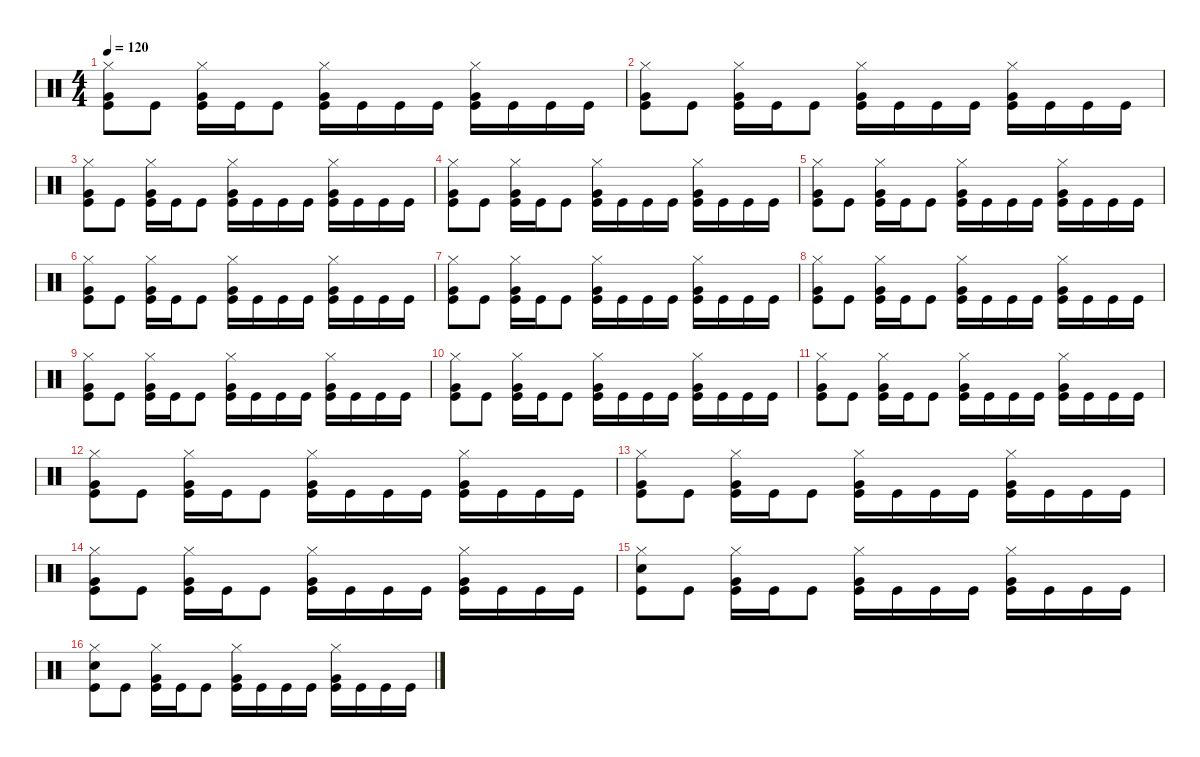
\defaultSystemsLayout 4
\hideDynamics
\bracketExtendMode nobrackets
\singleTrackTrackNamePolicy hidden
\multiTrackTrackNamePolicy hidden
\otherSystemsTrackNameOrientation horizontal
\track ("Ulrich" "drm.") {instrument percussion}
\staff {score}
\articulation defaults
\ts (4 4)
\tempo 120
\clef neutral
\ks c
("Hi-Hat (closed)" "Kick (hit)" "Very Low Tom (hit)").8{dy f beam Down} "Kick (hit)".8{dy fff beam Down} ("Hi-Hat (closed)" "Kick (hit)" "Very Low Tom (hit)").16{dy f beam Down} "Kick (hit)".16{dy fff beam Down} "Kick (hit)".8{beam Down} ("Hi-Hat (closed)" "Kick (hit)" "Very Low Tom (hit)").16{dy f beam Down} "Kick (hit)".16{dy fff beam Down} "Kick (hit)".16{beam Down} "Kick (hit)".16{beam Down} ("Hi-Hat (closed)" "Kick (hit)" "Very Low Tom (hit)").16{dy f beam Down} "Kick (hit)".16{dy fff beam Down} "Kick (hit)".16{beam Down} "Kick (hit)".16{beam Down} |
("Hi-Hat (closed)" "Kick (hit)" "Very Low Tom (hit)").8{dy f beam Down} "Kick (hit)".8{dy fff beam Down} ("Hi-Hat (closed)" "Kick (hit)" "Very Low Tom (hit)").16{dy f beam Down} "Kick (hit)".16{dy fff beam Down} "Kick (hit)".8{beam Down} ("Hi-Hat (closed)" "Kick (hit)" "Very Low Tom (hit)").16{dy f beam Down} "Kick (hit)".16{dy fff beam Down} "Kick (hit)".16{beam Down} "Kick (hit)".16{beam Down} ("Hi-Hat (closed)" "Kick (hit)" "Very Low Tom (hit)").16{dy f beam Down} "Kick (hit)".16{dy fff beam Down} "Kick (hit)".16{beam Down} "Kick (hit)".16{beam Down} |
("Hi-Hat (closed)" "Kick (hit)" "Very Low Tom (hit)").8{dy f beam Down} "Kick (hit)".8{dy fff beam Down} ("Hi-Hat (closed)" "Kick (hit)" "Very Low Tom (hit)").16{dy f beam Down} "Kick (hit)".16{dy fff beam Down} "Kick (hit)".8{beam Down} ("Hi-Hat (closed)" "Kick (hit)" "Very Low Tom (hit)").16{dy f beam Down} "Kick (hit)".16{dy fff beam Down} "Kick (hit)".16{beam Down} "Kick (hit)".16{beam Down} ("Hi-Hat (closed)" "Kick (hit)" "Very Low Tom (hit)").16{dy f beam Down} "Kick (hit)".16{dy fff beam Down} "Kick (hit)".16{beam Down} "Kick (hit)".16{beam Down} |
("Hi-Hat (closed)" "Kick (hit)" "Very Low Tom (hit)").8{dy f beam Down} "Kick (hit)".8{dy fff beam Down} ("Hi-Hat (closed)" "Kick (hit)" "Very Low Tom (hit)").16{dy f beam Down} "Kick (hit)".16{dy fff beam Down} "Kick (hit)".8{beam Down} ("Hi-Hat (closed)" "Kick (hit)" "Very Low Tom (hit)").16{dy f beam Down} "Kick (hit)".16{dy fff beam Down} "Kick (hit)".16{beam Down} "Kick (hit)".16{beam Down} ("Hi-Hat (closed)" "Kick (hit)" "Very Low Tom (hit)").16{dy f beam Down} "Kick (hit)".16{dy fff beam Down} "Kick (hit)".16{beam Down} "Kick (hit)".16{beam Down} |
("Hi-Hat (closed)" "Kick (hit)" "Very Low Tom (hit)").8{dy f beam Down} "Kick (hit)".8{dy fff beam Down} ("Hi-Hat (closed)" "Kick (hit)" "Very Low Tom (hit)").16{dy f beam Down} "Kick (hit)".16{dy fff beam Down} "Kick (hit)".8{beam Down} ("Hi-Hat (closed)" "Kick (hit)" "Very Low Tom (hit)").16{dy f beam Down} "Kick (hit)".16{dy fff beam Down} "Kick (hit)".16{beam Down} "Kick (hit)".16{beam Down} ("Hi-Hat (closed)" "Kick (hit)" "Very Low Tom (hit)").16{dy f beam Down} "Kick (hit)".16{dy fff beam Down} "Kick (hit)".16{beam Down} "Kick (hit)".16{beam Down} |
("Hi-Hat (closed)" "Kick (hit)" "Very Low Tom (hit)").8{dy f beam Down} "Kick (hit)".8{dy fff beam Down} ("Hi-Hat (closed)" "Kick (hit)" "Very Low Tom (hit)").16{dy f beam Down} "Kick (hit)".16{dy fff beam Down} "Kick (hit)".8{beam Down} ("Hi-Hat (closed)" "Kick (hit)" "Very Low Tom (hit)").16{dy f beam Down} "Kick (hit)".16{dy fff beam Down} "Kick (hit)".16{beam Down} "Kick (hit)".16{beam Down} ("Hi-Hat (closed)" "Kick (hit)" "Very Low Tom (hit)").16{dy f beam Down} "Kick (hit)".16{dy fff beam Down} "Kick (hit)".16{beam Down} "Kick (hit)".16{beam Down} |
("Hi-Hat (closed)" "Kick (hit)" "Very Low Tom (hit)").8{dy f beam Down} "Kick (hit)".8{dy fff beam Down} ("Hi-Hat (closed)" "Kick (hit)" "Very Low Tom (hit)").16{dy f beam Down} "Kick (hit)".16{dy fff beam Down} "Kick (hit)".8{beam Down} ("Hi-Hat (closed)" "Kick (hit)" "Very Low Tom (hit)").16{dy f beam Down} "Kick (hit)".16{dy fff beam Down} "Kick (hit)".16{beam Down} "Kick (hit)".16{beam Down} ("Hi-Hat (closed)" "Kick (hit)" "Very Low Tom (hit)").16{dy f beam Down} "Kick (hit)".16{dy fff beam Down} "Kick (hit)".16{beam Down} "Kick (hit)".16{beam Down} |
("Hi-Hat (closed)" "Kick (hit)" "Very Low Tom (hit)").8{dy f beam Down} "Kick (hit)".8{dy fff beam Down} ("Hi-Hat (closed)" "Kick (hit)" "Very Low Tom (hit)").16{dy f beam Down} "Kick (hit)".16{dy fff beam Down} "Kick (hit)".8{beam Down} ("Hi-Hat (closed)" "Kick (hit)" "Very Low Tom (hit)").16{dy f beam Down} "Kick (hit)".16{dy fff beam Down} "Kick (hit)".16{beam Down} "Kick (hit)".16{beam Down} ("Hi-Hat (closed)" "Kick (hit)" "Very Low Tom (hit)").16{dy f beam Down} "Kick (hit)".16{dy fff beam Down} "Kick (hit)".16{beam Down} "Kick (hit)".16{beam Down} |
("Hi-Hat (closed)" "Kick (hit)" "Very Low Tom (hit)").8{dy f beam Down} "Kick (hit)".8{dy fff beam Down} ("Hi-Hat (closed)" "Kick (hit)" "Very Low Tom (hit)").16{dy f beam Down} "Kick (hit)".16{dy fff beam Down} "Kick (hit)".8{beam Down} ("Hi-Hat (closed)" "Kick (hit)" "Very Low Tom (hit)").16{dy f beam Down} "Kick (hit)".16{dy fff beam Down} "Kick (hit)".16{beam Down} "Kick (hit)".16{beam Down} ("Hi-Hat (closed)" "Kick (hit)" "Very Low Tom (hit)").16{dy f beam Down} "Kick (hit)".16{dy fff beam Down} "Kick (hit)".16{beam Down} "Kick (hit)".16{beam Down} |
("Hi-Hat (closed)" "Kick (hit)" "Very Low Tom (hit)").8{dy f beam Down} "Kick (hit)".8{dy fff beam Down} ("Hi-Hat (closed)" "Kick (hit)" "Very Low Tom (hit)").16{dy f beam Down} "Kick (hit)".16{dy fff beam Down} "Kick (hit)".8{beam Down} ("Hi-Hat (closed)" "Kick (hit)" "Very Low Tom (hit)").16{dy f beam Down} "Kick (hit)".16{dy fff beam Down} "Kick (hit)".16{beam Down} "Kick (hit)".16{beam Down} ("Hi-Hat (closed)" "Kick (hit)" "Very Low Tom (hit)").16{dy f beam Down} "Kick (hit)".16{dy fff beam Down} "Kick (hit)".16{beam Down} "Kick (hit)".16{beam Down} |
("Hi-Hat (closed)" "Kick (hit)" "Very Low Tom (hit)").8{dy f beam Down} "Kick (hit)".8{dy fff beam Down} ("Hi-Hat (closed)" "Kick (hit)" "Very Low Tom (hit)").16{dy f beam Down} "Kick (hit)".16{dy fff beam Down} "Kick (hit)".8{beam Down} ("Hi-Hat (closed)" "Kick (hit)" "Very Low Tom (hit)").16{dy f beam Down} "Kick (hit)".16{dy fff beam Down} "Kick (hit)".16{beam Down} "Kick (hit)".16{beam Down} ("Hi-Hat (closed)" "Kick (hit)" "Very Low Tom (hit)").16{dy f beam Down} "Kick (hit)".16{dy fff beam Down} "Kick (hit)".16{beam Down} "Kick (hit)".16{beam Down} |
("Hi-Hat (closed)" "Kick (hit)" "Very Low Tom (hit)").8{dy f beam Down} "Kick (hit)".8{dy fff beam Down} ("Hi-Hat (closed)" "Kick (hit)" "Very Low Tom (hit)").16{dy f beam Down} "Kick (hit)".16{dy fff beam Down} "Kick (hit)".8{beam Down} ("Hi-Hat (closed)" "Kick (hit)" "Very Low Tom (hit)").16{dy f beam Down} "Kick (hit)".16{dy fff beam Down} "Kick (hit)".16{beam Down} "Kick (hit)".16{beam Down} ("Hi-Hat (closed)" "Kick (hit)" "Very Low Tom (hit)").16{dy f beam Down} "Kick (hit)".16{dy fff beam Down} "Kick (hit)".16{beam Down} "Kick (hit)".16{beam Down} |
("Hi-Hat (closed)" "Kick (hit)" "Very Low Tom (hit)").8{dy f beam Down} "Kick (hit)".8{dy fff beam Down} ("Hi-Hat (closed)" "Kick (hit)" "Very Low Tom (hit)").16{dy f beam Down} "Kick (hit)".16{dy fff beam Down} "Kick (hit)".8{beam Down} ("Hi-Hat (closed)" "Kick (hit)" "Very Low Tom (hit)").16{dy f beam Down} "Kick (hit)".16{dy fff beam Down} "Kick (hit)".16{beam Down} "Kick (hit)".16{beam Down} ("Hi-Hat (closed)" "Kick (hit)" "Very Low Tom (hit)").16{dy f beam Down} "Kick (hit)".16{dy fff beam Down} "Kick (hit)".16{beam Down} "Kick (hit)".16{beam Down} |
("Hi-Hat (closed)" "Kick (hit)" "Very Low Tom (hit)").8{dy f beam Down} "Kick (hit)".8{dy fff beam Down} ("Hi-Hat (closed)" "Kick (hit)" "Very Low Tom (hit)").16{dy f beam Down} "Kick (hit)".16{dy fff beam Down} "Kick (hit)".8{beam Down} ("Hi-Hat (closed)" "Kick (hit)" "Very Low Tom (hit)").16{dy f beam Down} "Kick (hit)".16{dy fff beam Down} "Kick (hit)".16{beam Down} "Kick (hit)".16{beam Down} ("Hi-Hat (closed)" "Kick (hit)" "Very Low Tom (hit)").16{dy f beam Down} "Kick (hit)".16{dy fff beam Down} "Kick (hit)".16{beam Down} "Kick (hit)".16{beam Down} |
("Hi-Hat (closed)" "Kick (hit)" "Snare (hit) 2").8{dy f beam Down} "Kick (hit)".8{dy fff beam Down} ("Hi-Hat (closed)" "Kick (hit)" "Very Low Tom (hit)").16{dy f beam Down} "Kick (hit)".16{dy fff beam Down} "Kick (hit)".8{beam Down} ("Hi-Hat (closed)" "Kick (hit)" "Very Low Tom (hit)").16{dy f beam Down} "Kick (hit)".16{dy fff beam Down} "Kick (hit)".16{beam Down} "Kick (hit)".16{beam Down} ("Hi-Hat (closed)" "Kick (hit)" "Very Low Tom (hit)").16{dy f beam Down} "Kick (hit)".16{dy fff beam Down} "Kick (hit)".16{beam Down} "Kick (hit)".16{beam Down} |
("Hi-Hat (closed)" "Kick (hit)" "Snare (hit) 2").8{dy f beam Down} "Kick (hit)".8{dy fff beam Down} ("Hi-Hat (closed)" "Kick (hit)" "Very Low Tom (hit)").16{dy f beam Down} "Kick (hit)".16{dy fff beam Down} "Kick (hit)".8{beam Down} ("Hi-Hat (closed)" "Kick (hit)" "Very Low Tom (hit)").16{dy f beam Down} "Kick (hit)".16{dy fff beam Down} "Kick (hit)".16{beam Down} "Kick (hit)".16{beam Down} ("Hi-Hat (closed)" "Kick (hit)" "Very Low Tom (hit)").16{dy f beam Down} "Kick (hit)".16{dy fff beam Down} "Kick (hit)".16{beam Down} "Kick (hit)".16{beam Down}
